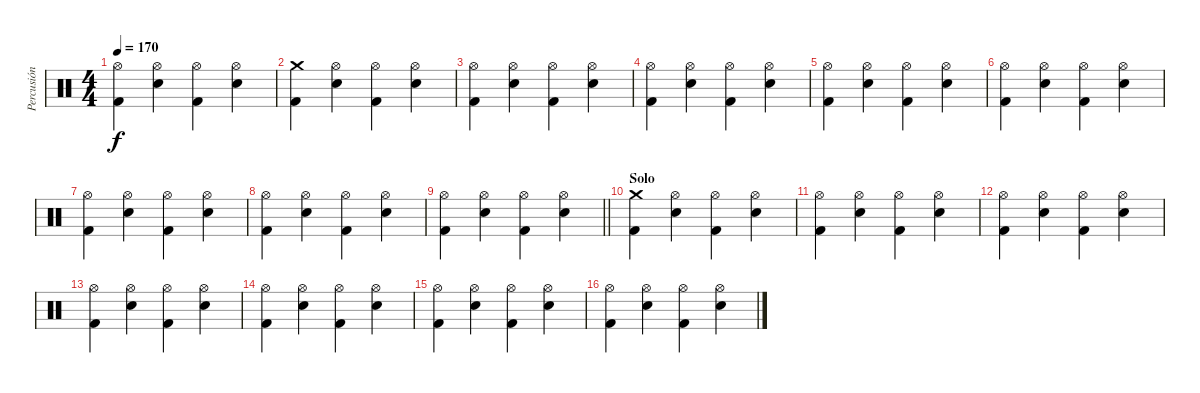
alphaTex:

\track ("Percusión" "Percusión") {instrument percussion}
\staff {score}
\articulation defaults
\ts (4 4)
\tempo 170
\clef neutral
\ks c
("Hi-Hat (open)" "Kick (hit) 2").4{dy f} ("Hi-Hat (open)" "Snare (hit) 2").4 ("Hi-Hat (open)" "Kick (hit) 2").4 ("Hi-Hat (open)" "Snare (hit) 2").4 |
("Crash medium (hit)" "Kick (hit) 2").4 ("Hi-Hat (open)" "Snare (hit) 2").4 ("Hi-Hat (open)" "Kick (hit) 2").4 ("Hi-Hat (open)" "Snare (hit) 2").4 |
("Hi-Hat (open)" "Kick (hit) 2").4 ("Hi-Hat (open)" "Snare (hit) 2").4 ("Hi-Hat (open)" "Kick (hit) 2").4 ("Hi-Hat (open)" "Snare (hit) 2").4 |
("Hi-Hat (open)" "Kick (hit) 2").4 ("Hi-Hat (open)" "Snare (hit) 2").4 ("Hi-Hat (open)" "Kick (hit) 2").4 ("Hi-Hat (open)" "Snare (hit) 2").4 |
("Hi-Hat (open)" "Kick (hit) 2").4 ("Hi-Hat (open)" "Snare (hit) 2").4 ("Hi-Hat (open)" "Kick (hit) 2").4 ("Hi-Hat (open)" "Snare (hit) 2").4 |
("Hi-Hat (open)" "Kick (hit) 2").4 ("Hi-Hat (open)" "Snare (hit) 2").4 ("Hi-Hat (open)" "Kick (hit) 2").4 ("Hi-Hat (open)" "Snare (hit) 2").4 |
("Hi-Hat (open)" "Kick (hit) 2").4 ("Hi-Hat (open)" "Snare (hit) 2").4 ("Hi-Hat (open)" "Kick (hit) 2").4 ("Hi-Hat (open)" "Snare (hit) 2").4 |
("Hi-Hat (open)" "Kick (hit) 2").4 ("Hi-Hat (open)" "Snare (hit) 2").4 ("Hi-Hat (open)" "Kick (hit) 2").4 ("Hi-Hat (open)" "Snare (hit) 2").4 |
\barLineRight lightlight
("Hi-Hat (open)" "Kick (hit) 2").4 ("Hi-Hat (open)" "Snare (hit) 2").4 ("Hi-Hat (open)" "Kick (hit) 2").4 ("Hi-Hat (open)" "Snare (hit) 2").4 |
\section ("" "Solo")
("Crash medium (hit)" "Kick (hit) 2").4 ("Hi-Hat (open)" "Snare (hit) 2").4 ("Hi-Hat (open)" "Kick (hit) 2").4 ("Hi-Hat (open)" "Snare (hit) 2").4 |
("Hi-Hat (open)" "Kick (hit) 2").4 ("Hi-Hat (open)" "Snare (hit) 2").4 ("Hi-Hat (open)" "Kick (hit) 2").4 ("Hi-Hat (open)" "Snare (hit) 2").4 |
("Hi-Hat (open)" "Kick (hit) 2").4 ("Hi-Hat (open)" "Snare (hit) 2").4 ("Hi-Hat (open)" "Kick (hit) 2").4 ("Hi-Hat (open)" "Snare (hit) 2").4 |
("Hi-Hat (open)" "Kick (hit) 2").4 ("Hi-Hat (open)" "Snare (hit) 2").4 ("Hi-Hat (open)" "Kick (hit) 2").4 ("Hi-Hat (open)" "Snare (hit) 2").4 |
("Hi-Hat (open)" "Kick (hit) 2").4 ("Hi-Hat (open)" "Snare (hit) 2").4 ("Hi-Hat (open)" "Kick (hit) 2").4 ("Hi-Hat (open)" "Snare (hit) 2").4 |
("Hi-Hat (open)" "Kick (hit) 2").4 ("Hi-Hat (open)" "Snare (hit) 2").4 ("Hi-Hat (open)" "Kick (hit) 2").4 ("Hi-Hat (open)" "Snare (hit) 2").4 |
("Hi-Hat (open)" "Kick (hit) 2").4 ("Hi-Hat (open)" "Snare (hit) 2").4 ("Hi-Hat (open)" "Kick (hit) 2").4 ("Hi-Hat (open)" "Snare (hit) 2").4
